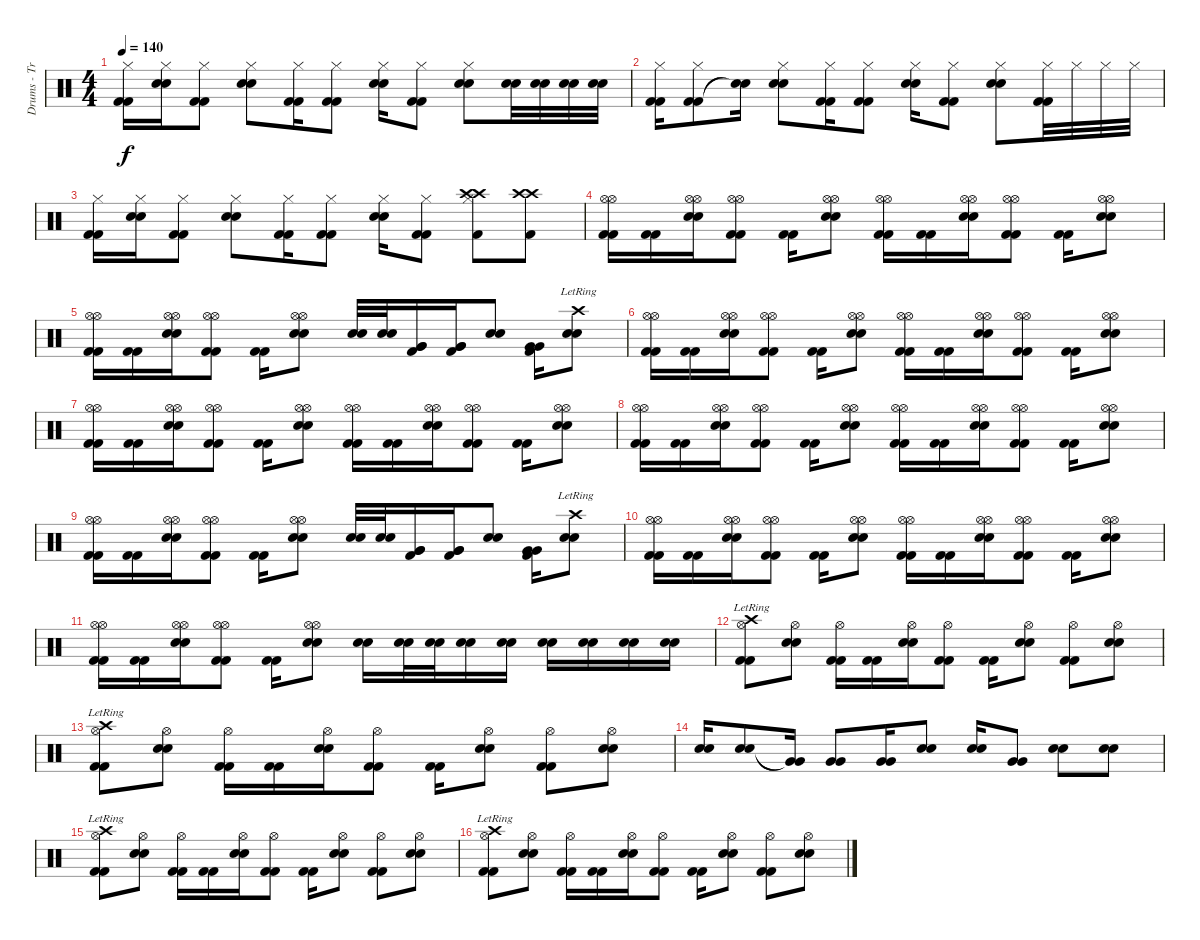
\track ("Drums - Travis Barker" "Drums - Tr") {instrument percussion}
\staff {score}
\articulation defaults
\ts (4 4)
\tempo 140
\clef neutral
\ks c
("Kick (hit) 2" "Kick (hit) 2" "Hi-Hat (closed)").16{dy f} ("Snare (hit) 2" "Snare (hit) 2" "Hi-Hat (closed)").16 ("Kick (hit) 2" "Kick (hit) 2" "Hi-Hat (closed)").8 ("Snare (hit) 2" "Snare (hit) 2" "Hi-Hat (closed)").8 ("Kick (hit) 2" "Kick (hit) 2" "Hi-Hat (closed)").16 ("Kick (hit) 2" "Kick (hit) 2" "Hi-Hat (closed)").8 ("Snare (hit) 2" "Snare (hit) 2" "Hi-Hat (closed)").16 ("Kick (hit) 2" "Kick (hit) 2" "Hi-Hat (closed)").8 ("Snare (hit) 2" "Snare (hit) 2" "Hi-Hat (closed)").8 ("Snare (hit) 2" "Snare (hit) 2").32 ("Snare (hit) 2" "Snare (hit) 2").32 ("Snare (hit) 2" "Snare (hit) 2").32 ("Snare (hit) 2" "Snare (hit) 2").32 |
("Kick (hit) 2" "Kick (hit) 2" "Hi-Hat (closed)").16 ("Kick (hit) 2" "Kick (hit) 2" "Hi-Hat (closed)").8 ("Snare (hit) 2"{t} "Snare (hit) 2"{t}).16 ("Snare (hit) 2" "Snare (hit) 2" "Hi-Hat (closed)").8 ("Kick (hit) 2" "Kick (hit) 2" "Hi-Hat (closed)").16 ("Kick (hit) 2" "Kick (hit) 2" "Hi-Hat (closed)").8 ("Snare (hit) 2" "Snare (hit) 2" "Hi-Hat (closed)").16 ("Kick (hit) 2" "Kick (hit) 2" "Hi-Hat (closed)").8 ("Snare (hit) 2" "Snare (hit) 2" "Hi-Hat (closed)").8 ("Kick (hit) 2" "Kick (hit) 2" "Hi-Hat (closed)").32 "Hi-Hat (closed)".32 "Hi-Hat (closed)".32 "Hi-Hat (closed)".32 |
("Kick (hit) 2" "Kick (hit) 2" "Hi-Hat (closed)").16 ("Snare (hit) 2" "Snare (hit) 2" "Hi-Hat (closed)").16 ("Kick (hit) 2" "Kick (hit) 2" "Hi-Hat (closed)").8 ("Snare (hit) 2" "Snare (hit) 2" "Hi-Hat (closed)").8 ("Kick (hit) 2" "Kick (hit) 2" "Hi-Hat (closed)").16 ("Kick (hit) 2" "Kick (hit) 2" "Hi-Hat (closed)").8 ("Snare (hit) 2" "Snare (hit) 2" "Hi-Hat (closed)").16 ("Kick (hit) 2" "Kick (hit) 2" "Hi-Hat (closed)").8 ("Crash high (hit)" "Crash high (hit)" "Hi-Hat (closed)" "Kick (hit) 2").8 ("Crash high (hit)" "Crash high (hit)" "Kick (hit) 2").8 |
("Kick (hit) 2" "Kick (hit) 2" "Hi-Hat (open)" "Hi-Hat (open)").16 ("Kick (hit) 2" "Kick (hit) 2").16 ("Snare (hit) 2" "Snare (hit) 2" "Hi-Hat (open)" "Hi-Hat (open)").16 ("Kick (hit) 2" "Kick (hit) 2" "Hi-Hat (open)" "Hi-Hat (open)").8 ("Kick (hit) 2" "Kick (hit) 2").16 ("Snare (hit) 2" "Snare (hit) 2" "Hi-Hat (open)" "Hi-Hat (open)").8 ("Kick (hit) 2" "Kick (hit) 2" "Hi-Hat (open)" "Hi-Hat (open)").16 ("Kick (hit) 2" "Kick (hit) 2").16 ("Snare (hit) 2" "Snare (hit) 2" "Hi-Hat (open)" "Hi-Hat (open)").16 ("Kick (hit) 2" "Kick (hit) 2" "Hi-Hat (open)" "Hi-Hat (open)").8 ("Kick (hit) 2" "Kick (hit) 2").16 ("Snare (hit) 2" "Snare (hit) 2" "Hi-Hat (open)" "Hi-Hat (open)").8 |
("Kick (hit) 2" "Kick (hit) 2" "Hi-Hat (open)" "Hi-Hat (open)").16 ("Kick (hit) 2" "Kick (hit) 2").16 ("Snare (hit) 2" "Snare (hit) 2" "Hi-Hat (open)" "Hi-Hat (open)").16 ("Kick (hit) 2" "Kick (hit) 2" "Hi-Hat (open)" "Hi-Hat (open)").8 ("Kick (hit) 2" "Kick (hit) 2").16 ("Snare (hit) 2" "Snare (hit) 2" "Hi-Hat (open)" "Hi-Hat (open)").8 ("Snare (hit) 2" "Snare (hit) 2").32 ("Snare (hit) 2" "Snare (hit) 2").32 ("Very Low Tom (hit)" "Very Low Tom (hit)" "Kick (hit) 2").16 ("Very Low Tom (hit)" "Very Low Tom (hit)" "Kick (hit) 2").16 ("Snare (hit) 2" "Snare (hit) 2").8 ("Very Low Tom (hit)" "Very Low Tom (hit)" "Kick (hit) 2").16 ("Snare (hit) 2" "Snare (hit) 2" "Crash high (hit)"{lr}).8 |
("Kick (hit) 2" "Kick (hit) 2" "Hi-Hat (open)" "Hi-Hat (open)").16 ("Kick (hit) 2" "Kick (hit) 2").16 ("Snare (hit) 2" "Snare (hit) 2" "Hi-Hat (open)" "Hi-Hat (open)").16 ("Kick (hit) 2" "Kick (hit) 2" "Hi-Hat (open)" "Hi-Hat (open)").8 ("Kick (hit) 2" "Kick (hit) 2").16 ("Snare (hit) 2" "Snare (hit) 2" "Hi-Hat (open)" "Hi-Hat (open)").8 ("Kick (hit) 2" "Kick (hit) 2" "Hi-Hat (open)" "Hi-Hat (open)").16 ("Kick (hit) 2" "Kick (hit) 2").16 ("Snare (hit) 2" "Snare (hit) 2" "Hi-Hat (open)" "Hi-Hat (open)").16 ("Kick (hit) 2" "Kick (hit) 2" "Hi-Hat (open)" "Hi-Hat (open)").8 ("Kick (hit) 2" "Kick (hit) 2").16 ("Snare (hit) 2" "Snare (hit) 2" "Hi-Hat (open)" "Hi-Hat (open)").8 |
("Kick (hit) 2" "Kick (hit) 2" "Hi-Hat (open)" "Hi-Hat (open)").16 ("Kick (hit) 2" "Kick (hit) 2").16 ("Snare (hit) 2" "Snare (hit) 2" "Hi-Hat (open)" "Hi-Hat (open)").16 ("Kick (hit) 2" "Kick (hit) 2" "Hi-Hat (open)" "Hi-Hat (open)").8 ("Kick (hit) 2" "Kick (hit) 2").16 ("Snare (hit) 2" "Snare (hit) 2" "Hi-Hat (open)" "Hi-Hat (open)").8 ("Kick (hit) 2" "Kick (hit) 2" "Hi-Hat (open)" "Hi-Hat (open)").16 ("Kick (hit) 2" "Kick (hit) 2").16 ("Snare (hit) 2" "Snare (hit) 2" "Hi-Hat (open)" "Hi-Hat (open)").16 ("Kick (hit) 2" "Kick (hit) 2" "Hi-Hat (open)" "Hi-Hat (open)").8 ("Kick (hit) 2" "Kick (hit) 2").16 ("Snare (hit) 2" "Snare (hit) 2" "Hi-Hat (open)" "Hi-Hat (open)").8 |
("Kick (hit) 2" "Kick (hit) 2" "Hi-Hat (open)" "Hi-Hat (open)").16 ("Kick (hit) 2" "Kick (hit) 2").16 ("Snare (hit) 2" "Snare (hit) 2" "Hi-Hat (open)" "Hi-Hat (open)").16 ("Kick (hit) 2" "Kick (hit) 2" "Hi-Hat (open)" "Hi-Hat (open)").8 ("Kick (hit) 2" "Kick (hit) 2").16 ("Snare (hit) 2" "Snare (hit) 2" "Hi-Hat (open)" "Hi-Hat (open)").8 ("Kick (hit) 2" "Kick (hit) 2" "Hi-Hat (open)" "Hi-Hat (open)").16 ("Kick (hit) 2" "Kick (hit) 2").16 ("Snare (hit) 2" "Snare (hit) 2" "Hi-Hat (open)" "Hi-Hat (open)").16 ("Kick (hit) 2" "Kick (hit) 2" "Hi-Hat (open)" "Hi-Hat (open)").8 ("Kick (hit) 2" "Kick (hit) 2").16 ("Snare (hit) 2" "Snare (hit) 2" "Hi-Hat (open)" "Hi-Hat (open)").8 |
("Kick (hit) 2" "Kick (hit) 2" "Hi-Hat (open)" "Hi-Hat (open)").16 ("Kick (hit) 2" "Kick (hit) 2").16 ("Snare (hit) 2" "Snare (hit) 2" "Hi-Hat (open)" "Hi-Hat (open)").16 ("Kick (hit) 2" "Kick (hit) 2" "Hi-Hat (open)" "Hi-Hat (open)").8 ("Kick (hit) 2" "Kick (hit) 2").16 ("Snare (hit) 2" "Snare (hit) 2" "Hi-Hat (open)" "Hi-Hat (open)").8 ("Snare (hit) 2" "Snare (hit) 2").32 ("Snare (hit) 2" "Snare (hit) 2").32 ("Very Low Tom (hit)" "Very Low Tom (hit)" "Kick (hit) 2").16 ("Very Low Tom (hit)" "Very Low Tom (hit)" "Kick (hit) 2").16 ("Snare (hit) 2" "Snare (hit) 2").8 ("Very Low Tom (hit)" "Very Low Tom (hit)" "Kick (hit) 2").16 ("Snare (hit) 2" "Snare (hit) 2" "Crash high (hit)"{lr}).8 |
("Kick (hit) 2" "Kick (hit) 2" "Hi-Hat (open)" "Hi-Hat (open)").16 ("Kick (hit) 2" "Kick (hit) 2").16 ("Snare (hit) 2" "Snare (hit) 2" "Hi-Hat (open)" "Hi-Hat (open)").16 ("Kick (hit) 2" "Kick (hit) 2" "Hi-Hat (open)" "Hi-Hat (open)").8 ("Kick (hit) 2" "Kick (hit) 2").16 ("Snare (hit) 2" "Snare (hit) 2" "Hi-Hat (open)" "Hi-Hat (open)").8 ("Kick (hit) 2" "Kick (hit) 2" "Hi-Hat (open)" "Hi-Hat (open)").16 ("Kick (hit) 2" "Kick (hit) 2").16 ("Snare (hit) 2" "Snare (hit) 2" "Hi-Hat (open)" "Hi-Hat (open)").16 ("Kick (hit) 2" "Kick (hit) 2" "Hi-Hat (open)" "Hi-Hat (open)").8 ("Kick (hit) 2" "Kick (hit) 2").16 ("Snare (hit) 2" "Snare (hit) 2" "Hi-Hat (open)" "Hi-Hat (open)").8 |
("Kick (hit) 2" "Kick (hit) 2" "Hi-Hat (open)" "Hi-Hat (open)").16 ("Kick (hit) 2" "Kick (hit) 2").16 ("Snare (hit) 2" "Snare (hit) 2" "Hi-Hat (open)" "Hi-Hat (open)").16 ("Kick (hit) 2" "Kick (hit) 2" "Hi-Hat (open)" "Hi-Hat (open)").8 ("Kick (hit) 2" "Kick (hit) 2").16 ("Snare (hit) 2" "Snare (hit) 2" "Hi-Hat (open)" "Hi-Hat (open)").8 ("Snare (hit) 2" "Snare (hit) 2").16 ("Snare (hit) 2" "Snare (hit) 2").32 ("Snare (hit) 2" "Snare (hit) 2").32 ("Snare (hit) 2" "Snare (hit) 2").16 ("Snare (hit) 2" "Snare (hit) 2").16 ("Snare (hit) 2" "Snare (hit) 2").16 ("Snare (hit) 2" "Snare (hit) 2").16 ("Snare (hit) 2" "Snare (hit) 2").16 ("Snare (hit) 2" "Snare (hit) 2").16 |
("Kick (hit) 2" "Kick (hit) 2" "Hi-Hat (open)" "Crash high (hit)"{lr}).8 ("Snare (hit) 2" "Snare (hit) 2" "Hi-Hat (open)").8 ("Kick (hit) 2" "Kick (hit) 2" "Hi-Hat (open)").16 ("Kick (hit) 2" "Kick (hit) 2").16 ("Snare (hit) 2" "Snare (hit) 2" "Hi-Hat (open)").16 ("Kick (hit) 2" "Kick (hit) 2" "Hi-Hat (open)").8 ("Kick (hit) 2" "Kick (hit) 2").16 ("Snare (hit) 2" "Snare (hit) 2" "Hi-Hat (open)").8 ("Kick (hit) 2" "Kick (hit) 2" "Hi-Hat (open)").8 ("Snare (hit) 2" "Snare (hit) 2" "Hi-Hat (open)").8 |
("Kick (hit) 2" "Kick (hit) 2" "Hi-Hat (open)" "Crash high (hit)"{lr}).8 ("Snare (hit) 2" "Snare (hit) 2" "Hi-Hat (open)").8 ("Kick (hit) 2" "Kick (hit) 2" "Hi-Hat (open)").16 ("Kick (hit) 2" "Kick (hit) 2").16 ("Snare (hit) 2" "Snare (hit) 2" "Hi-Hat (open)").16 ("Kick (hit) 2" "Kick (hit) 2" "Hi-Hat (open)").8 ("Kick (hit) 2" "Kick (hit) 2").16 ("Snare (hit) 2" "Snare (hit) 2" "Hi-Hat (open)").8 ("Kick (hit) 2" "Kick (hit) 2" "Hi-Hat (open)").8 ("Snare (hit) 2" "Snare (hit) 2" "Hi-Hat (open)").8 |
("Snare (hit) 2" "Snare (hit) 2").16 ("Snare (hit) 2" "Snare (hit) 2").8 ("Very Low Tom (hit)"{t} "Very Low Tom (hit)"{t}).16 ("Very Low Tom (hit)" "Very Low Tom (hit)").8 ("Very Low Tom (hit)" "Very Low Tom (hit)").16 ("Snare (hit) 2" "Snare (hit) 2").8 ("Snare (hit) 2" "Snare (hit) 2").16 ("Very Low Tom (hit)" "Very Low Tom (hit)").8 ("Snare (hit) 2" "Snare (hit) 2").8 ("Snare (hit) 2" "Snare (hit) 2").8 |
("Kick (hit) 2" "Kick (hit) 2" "Hi-Hat (open)" "Crash high (hit)"{lr}).8 ("Snare (hit) 2" "Snare (hit) 2" "Hi-Hat (open)").8 ("Kick (hit) 2" "Kick (hit) 2" "Hi-Hat (open)").16 ("Kick (hit) 2" "Kick (hit) 2").16 ("Snare (hit) 2" "Snare (hit) 2" "Hi-Hat (open)").16 ("Kick (hit) 2" "Kick (hit) 2" "Hi-Hat (open)").8 ("Kick (hit) 2" "Kick (hit) 2").16 ("Snare (hit) 2" "Snare (hit) 2" "Hi-Hat (open)").8 ("Kick (hit) 2" "Kick (hit) 2" "Hi-Hat (open)").8 ("Snare (hit) 2" "Snare (hit) 2" "Hi-Hat (open)").8 |
("Kick (hit) 2" "Kick (hit) 2" "Hi-Hat (open)" "Crash high (hit)"{lr}).8 ("Snare (hit) 2" "Snare (hit) 2" "Hi-Hat (open)").8 ("Kick (hit) 2" "Kick (hit) 2" "Hi-Hat (open)").16 ("Kick (hit) 2" "Kick (hit) 2").16 ("Snare (hit) 2" "Snare (hit) 2" "Hi-Hat (open)").16 ("Kick (hit) 2" "Kick (hit) 2" "Hi-Hat (open)").8 ("Kick (hit) 2" "Kick (hit) 2").16 ("Snare (hit) 2" "Snare (hit) 2" "Hi-Hat (open)").8 ("Kick (hit) 2" "Kick (hit) 2" "Hi-Hat (open)").8 ("Snare (hit) 2" "Snare (hit) 2" "Hi-Hat (open)").8
